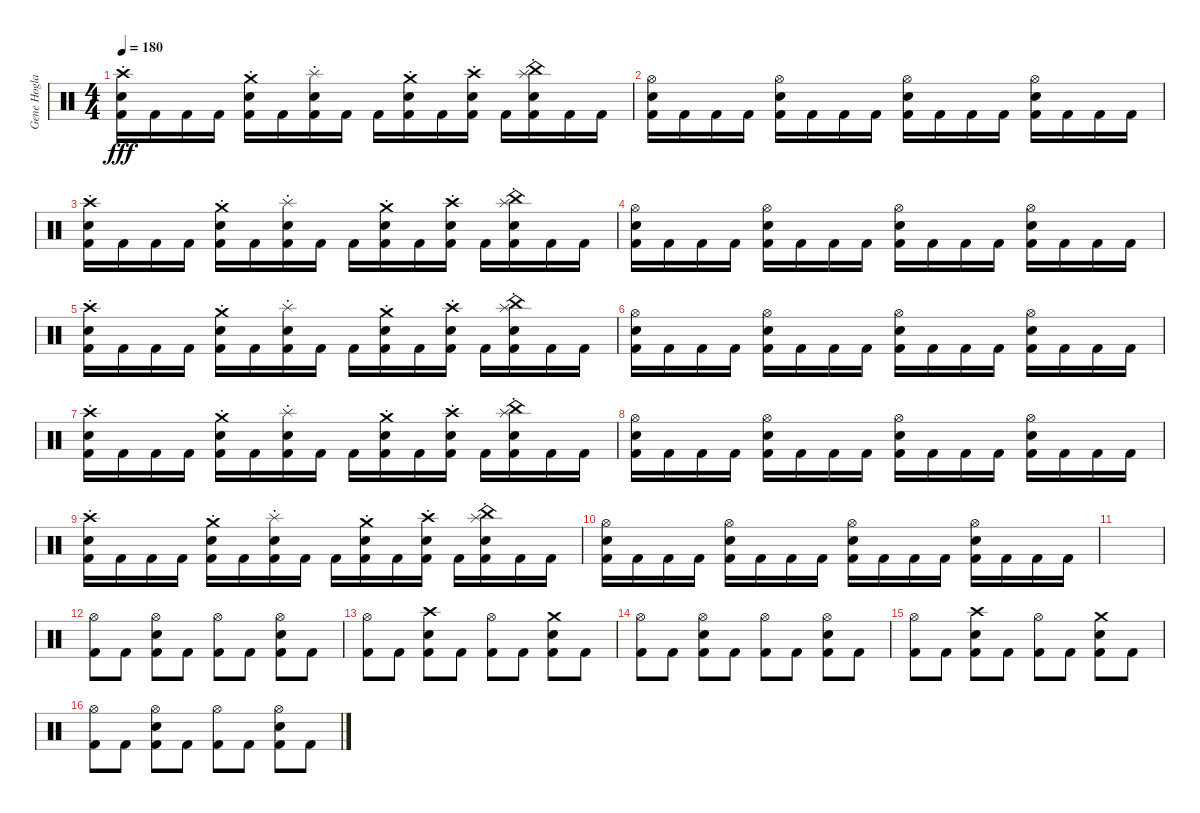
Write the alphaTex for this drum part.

\track ("Gene Hoglan" "Gene Hogla") {instrument percussion}
\staff {score}
\articulation defaults
\ts (4 4)
\tempo 180
\clef neutral
\ks c
("Crash high (hit)"{st} "Snare (hit) 2" "Kick (hit) 2").16{dy fff} "Kick (hit) 2".16 "Kick (hit) 2".16 "Kick (hit) 2".16 ("Crash medium (hit)"{st} "Snare (hit) 2" "Kick (hit) 2").16 "Kick (hit) 2".16 ("Splash (hit)"{st} "Snare (hit) 2" "Kick (hit) 2").16 "Kick (hit) 2".16 "Kick (hit) 2".16 ("Crash medium (hit)"{st} "Snare (hit) 2" "Kick (hit) 2").16 "Kick (hit) 2".16 ("Crash high (hit)"{st} "Snare (hit) 2" "Kick (hit) 2").16 "Kick (hit) 2".16 ("China (hit)"{st} "Splash (hit)"{st} "Snare (hit) 2" "Kick (hit) 2").16 "Kick (hit) 2".16 "Kick (hit) 2".16 |
("Hi-Hat (open)" "Snare (hit) 2" "Kick (hit) 2").16 "Kick (hit) 2".16 "Kick (hit) 2".16 "Kick (hit) 2".16 ("Hi-Hat (open)" "Snare (hit) 2" "Kick (hit) 2").16 "Kick (hit) 2".16 "Kick (hit) 2".16 "Kick (hit) 2".16 ("Hi-Hat (open)" "Snare (hit) 2" "Kick (hit) 2").16 "Kick (hit) 2".16 "Kick (hit) 2".16 "Kick (hit) 2".16 ("Hi-Hat (open)" "Snare (hit) 2" "Kick (hit) 2").16 "Kick (hit) 2".16 "Kick (hit) 2".16 "Kick (hit) 2".16 |
("Crash high (hit)"{st} "Snare (hit) 2" "Kick (hit) 2").16 "Kick (hit) 2".16 "Kick (hit) 2".16 "Kick (hit) 2".16 ("Crash medium (hit)"{st} "Snare (hit) 2" "Kick (hit) 2").16 "Kick (hit) 2".16 ("Splash (hit)"{st} "Snare (hit) 2" "Kick (hit) 2").16 "Kick (hit) 2".16 "Kick (hit) 2".16 ("Crash medium (hit)"{st} "Snare (hit) 2" "Kick (hit) 2").16 "Kick (hit) 2".16 ("Crash high (hit)"{st} "Snare (hit) 2" "Kick (hit) 2").16 "Kick (hit) 2".16 ("China (hit)"{st} "Splash (hit)"{st} "Snare (hit) 2" "Kick (hit) 2").16 "Kick (hit) 2".16 "Kick (hit) 2".16 |
("Hi-Hat (open)" "Snare (hit) 2" "Kick (hit) 2").16 "Kick (hit) 2".16 "Kick (hit) 2".16 "Kick (hit) 2".16 ("Hi-Hat (open)" "Snare (hit) 2" "Kick (hit) 2").16 "Kick (hit) 2".16 "Kick (hit) 2".16 "Kick (hit) 2".16 ("Hi-Hat (open)" "Snare (hit) 2" "Kick (hit) 2").16 "Kick (hit) 2".16 "Kick (hit) 2".16 "Kick (hit) 2".16 ("Hi-Hat (open)" "Snare (hit) 2" "Kick (hit) 2").16 "Kick (hit) 2".16 "Kick (hit) 2".16 "Kick (hit) 2".16 |
("Crash high (hit)"{st} "Snare (hit) 2" "Kick (hit) 2").16 "Kick (hit) 2".16 "Kick (hit) 2".16 "Kick (hit) 2".16 ("Crash medium (hit)"{st} "Snare (hit) 2" "Kick (hit) 2").16 "Kick (hit) 2".16 ("Splash (hit)"{st} "Snare (hit) 2" "Kick (hit) 2").16 "Kick (hit) 2".16 "Kick (hit) 2".16 ("Crash medium (hit)"{st} "Snare (hit) 2" "Kick (hit) 2").16 "Kick (hit) 2".16 ("Crash high (hit)"{st} "Snare (hit) 2" "Kick (hit) 2").16 "Kick (hit) 2".16 ("China (hit)"{st} "Splash (hit)"{st} "Snare (hit) 2" "Kick (hit) 2").16 "Kick (hit) 2".16 "Kick (hit) 2".16 |
("Hi-Hat (open)" "Snare (hit) 2" "Kick (hit) 2").16 "Kick (hit) 2".16 "Kick (hit) 2".16 "Kick (hit) 2".16 ("Hi-Hat (open)" "Snare (hit) 2" "Kick (hit) 2").16 "Kick (hit) 2".16 "Kick (hit) 2".16 "Kick (hit) 2".16 ("Hi-Hat (open)" "Snare (hit) 2" "Kick (hit) 2").16 "Kick (hit) 2".16 "Kick (hit) 2".16 "Kick (hit) 2".16 ("Hi-Hat (open)" "Snare (hit) 2" "Kick (hit) 2").16 "Kick (hit) 2".16 "Kick (hit) 2".16 "Kick (hit) 2".16 |
("Crash high (hit)"{st} "Snare (hit) 2" "Kick (hit) 2").16 "Kick (hit) 2".16 "Kick (hit) 2".16 "Kick (hit) 2".16 ("Crash medium (hit)"{st} "Snare (hit) 2" "Kick (hit) 2").16 "Kick (hit) 2".16 ("Splash (hit)"{st} "Snare (hit) 2" "Kick (hit) 2").16 "Kick (hit) 2".16 "Kick (hit) 2".16 ("Crash medium (hit)"{st} "Snare (hit) 2" "Kick (hit) 2").16 "Kick (hit) 2".16 ("Crash high (hit)"{st} "Snare (hit) 2" "Kick (hit) 2").16 "Kick (hit) 2".16 ("China (hit)"{st} "Splash (hit)"{st} "Snare (hit) 2" "Kick (hit) 2").16 "Kick (hit) 2".16 "Kick (hit) 2".16 |
("Hi-Hat (open)" "Snare (hit) 2" "Kick (hit) 2").16 "Kick (hit) 2".16 "Kick (hit) 2".16 "Kick (hit) 2".16 ("Hi-Hat (open)" "Snare (hit) 2" "Kick (hit) 2").16 "Kick (hit) 2".16 "Kick (hit) 2".16 "Kick (hit) 2".16 ("Hi-Hat (open)" "Snare (hit) 2" "Kick (hit) 2").16 "Kick (hit) 2".16 "Kick (hit) 2".16 "Kick (hit) 2".16 ("Hi-Hat (open)" "Snare (hit) 2" "Kick (hit) 2").16 "Kick (hit) 2".16 "Kick (hit) 2".16 "Kick (hit) 2".16 |
("Crash high (hit)"{st} "Snare (hit) 2" "Kick (hit) 2").16 "Kick (hit) 2".16 "Kick (hit) 2".16 "Kick (hit) 2".16 ("Crash medium (hit)"{st} "Snare (hit) 2" "Kick (hit) 2").16 "Kick (hit) 2".16 ("Splash (hit)"{st} "Snare (hit) 2" "Kick (hit) 2").16 "Kick (hit) 2".16 "Kick (hit) 2".16 ("Crash medium (hit)"{st} "Snare (hit) 2" "Kick (hit) 2").16 "Kick (hit) 2".16 ("Crash high (hit)"{st} "Snare (hit) 2" "Kick (hit) 2").16 "Kick (hit) 2".16 ("China (hit)"{st} "Splash (hit)"{st} "Snare (hit) 2" "Kick (hit) 2").16 "Kick (hit) 2".16 "Kick (hit) 2".16 |
("Hi-Hat (open)" "Snare (hit) 2" "Kick (hit) 2").16 "Kick (hit) 2".16 "Kick (hit) 2".16 "Kick (hit) 2".16 ("Hi-Hat (open)" "Snare (hit) 2" "Kick (hit) 2").16 "Kick (hit) 2".16 "Kick (hit) 2".16 "Kick (hit) 2".16 ("Hi-Hat (open)" "Snare (hit) 2" "Kick (hit) 2").16 "Kick (hit) 2".16 "Kick (hit) 2".16 "Kick (hit) 2".16 ("Hi-Hat (open)" "Snare (hit) 2" "Kick (hit) 2").16 "Kick (hit) 2".16 "Kick (hit) 2".16 "Kick (hit) 2".16 |
|
("Hi-Hat (open)" "Kick (hit) 2").8 "Kick (hit) 2".8 ("Hi-Hat (open)" "Snare (hit) 2" "Kick (hit) 2").8 "Kick (hit) 2".8 ("Hi-Hat (open)" "Kick (hit) 2").8 "Kick (hit) 2".8 ("Hi-Hat (open)" "Snare (hit) 2" "Kick (hit) 2").8 "Kick (hit) 2".8 |
("Hi-Hat (open)" "Kick (hit) 2").8 "Kick (hit) 2".8 ("Crash high (hit)" "Snare (hit) 2" "Kick (hit) 2").8 "Kick (hit) 2".8 ("Hi-Hat (open)" "Kick (hit) 2").8 "Kick (hit) 2".8 ("Crash medium (hit)" "Snare (hit) 2" "Kick (hit) 2").8 "Kick (hit) 2".8 |
("Hi-Hat (open)" "Kick (hit) 2").8 "Kick (hit) 2".8 ("Hi-Hat (open)" "Snare (hit) 2" "Kick (hit) 2").8 "Kick (hit) 2".8 ("Hi-Hat (open)" "Kick (hit) 2").8 "Kick (hit) 2".8 ("Hi-Hat (open)" "Snare (hit) 2" "Kick (hit) 2").8 "Kick (hit) 2".8 |
("Hi-Hat (open)" "Kick (hit) 2").8 "Kick (hit) 2".8 ("Crash high (hit)" "Snare (hit) 2" "Kick (hit) 2").8 "Kick (hit) 2".8 ("Hi-Hat (open)" "Kick (hit) 2").8 "Kick (hit) 2".8 ("Crash medium (hit)" "Snare (hit) 2" "Kick (hit) 2").8 "Kick (hit) 2".8 |
("Hi-Hat (open)" "Kick (hit) 2").8 "Kick (hit) 2".8 ("Hi-Hat (open)" "Snare (hit) 2" "Kick (hit) 2").8 "Kick (hit) 2".8 ("Hi-Hat (open)" "Kick (hit) 2").8 "Kick (hit) 2".8 ("Hi-Hat (open)" "Snare (hit) 2" "Kick (hit) 2").8 "Kick (hit) 2".8
